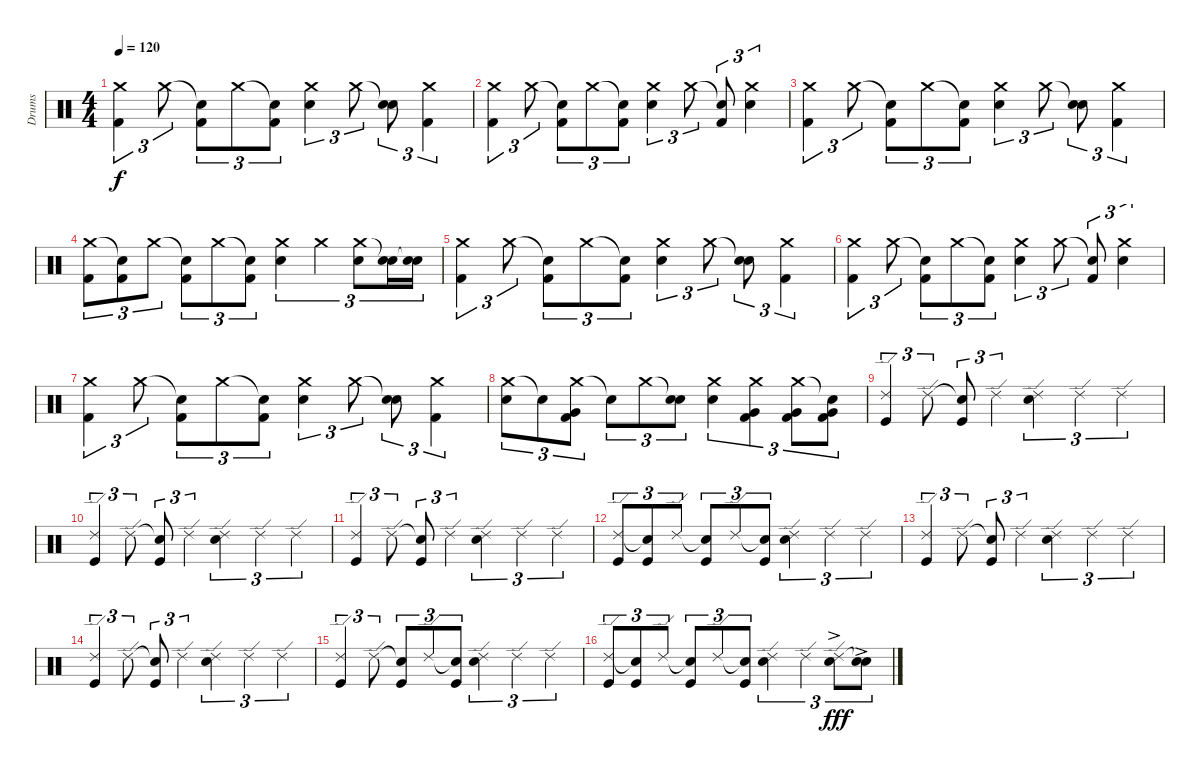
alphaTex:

\track ("Drums" "Drums") {instrument percussion}
\staff {score}
\articulation defaults
\ts (4 4)
\tempo 120
\clef neutral
\ks c
("Crash medium (hit)" "Kick (hit) 2").4{tu (3 2) dy f} "Crash medium (hit)".8{tu (3 2)} ("Snare (hit)"{t} "Kick (hit) 2").8{tu (3 2)} "Crash medium (hit)".8{tu (3 2)} ("Snare (hit)"{t} "Kick (hit) 2").8{tu (3 2)} ("Crash medium (hit)" "Electric Snare (hit)").4{tu (3 2)} "Crash medium (hit)".8{tu (3 2)} ("Snare (hit)"{t} "Electric Snare (hit)").8{tu (3 2)} ("Crash medium (hit)" "Kick (hit) 2").4{tu (3 2)} |
("Crash medium (hit)" "Kick (hit) 2").4{tu (3 2)} "Crash medium (hit)".8{tu (3 2)} ("Snare (hit)"{t} "Kick (hit) 2").8{tu (3 2)} "Crash medium (hit)".8{tu (3 2)} ("Snare (hit)"{t} "Kick (hit) 2").8{tu (3 2)} ("Crash medium (hit)" "Electric Snare (hit)").4{tu (3 2)} "Crash medium (hit)".8{tu (3 2)} ("Snare (hit)"{t} "Kick (hit) 2").8{tu (3 2)} ("Crash medium (hit)" "Electric Snare (hit)").4{tu (3 2)} |
("Crash medium (hit)" "Kick (hit) 2").4{tu (3 2)} "Crash medium (hit)".8{tu (3 2)} ("Snare (hit)"{t} "Kick (hit) 2").8{tu (3 2)} "Crash medium (hit)".8{tu (3 2)} ("Snare (hit)"{t} "Kick (hit) 2").8{tu (3 2)} ("Crash medium (hit)" "Electric Snare (hit)").4{tu (3 2)} "Crash medium (hit)".8{tu (3 2)} ("Snare (hit)"{t} "Electric Snare (hit)").8{tu (3 2)} ("Crash medium (hit)" "Kick (hit) 2").4{tu (3 2)} |
("Crash medium (hit)" "Kick (hit) 2").8{tu (3 2)} ("Snare (hit)"{t} "Kick (hit) 2").8{tu (3 2)} "Crash medium (hit)".8{tu (3 2)} ("Snare (hit)"{t} "Kick (hit) 2").8{tu (3 2)} "Crash medium (hit)".8{tu (3 2)} ("Snare (hit)"{t} "Kick (hit) 2").8{tu (3 2)} ("Crash medium (hit)" "Electric Snare (hit)").4{tu (3 2)} "Crash medium (hit)".4{tu (3 2)} ("Crash medium (hit)" "Electric Snare (hit)").8{tu (3 2)} ("Snare (hit)"{t} "Electric Snare (hit)").16{tu (3 2)} ("Snare (hit)"{t} "Electric Snare (hit)").16{tu (3 2)} |
("Crash medium (hit)" "Kick (hit) 2").4{tu (3 2)} "Crash medium (hit)".8{tu (3 2)} ("Snare (hit)"{t} "Kick (hit) 2").8{tu (3 2)} "Crash medium (hit)".8{tu (3 2)} ("Snare (hit)"{t} "Kick (hit) 2").8{tu (3 2)} ("Crash medium (hit)" "Electric Snare (hit)").4{tu (3 2)} "Crash medium (hit)".8{tu (3 2)} ("Snare (hit)"{t} "Electric Snare (hit)").8{tu (3 2)} ("Crash medium (hit)" "Kick (hit) 2").4{tu (3 2)} |
("Crash medium (hit)" "Kick (hit) 2").4{tu (3 2)} "Crash medium (hit)".8{tu (3 2)} ("Snare (hit)"{t} "Kick (hit) 2").8{tu (3 2)} "Crash medium (hit)".8{tu (3 2)} ("Snare (hit)"{t} "Kick (hit) 2").8{tu (3 2)} ("Crash medium (hit)" "Electric Snare (hit)").4{tu (3 2)} "Crash medium (hit)".8{tu (3 2)} ("Snare (hit)"{t} "Kick (hit) 2").8{tu (3 2)} ("Crash medium (hit)" "Electric Snare (hit)").4{tu (3 2)} |
("Crash medium (hit)" "Kick (hit) 2").4{tu (3 2)} "Crash medium (hit)".8{tu (3 2)} ("Snare (hit)"{t} "Kick (hit) 2").8{tu (3 2)} "Crash medium (hit)".8{tu (3 2)} ("Snare (hit)"{t} "Kick (hit) 2").8{tu (3 2)} ("Crash medium (hit)" "Electric Snare (hit)").4{tu (3 2)} "Crash medium (hit)".8{tu (3 2)} ("Snare (hit)"{t} "Electric Snare (hit)").8{tu (3 2)} ("Crash medium (hit)" "Kick (hit) 2").4{tu (3 2)} |
("Crash medium (hit)" "Electric Snare (hit)").8{tu (3 2)} "Snare (hit)"{t}.8{tu (3 2)} ("Crash medium (hit)" "Very Low Tom (hit)" "Kick (hit) 2").8{tu (3 2)} "Snare (hit)"{t}.8{tu (3 2)} "Crash medium (hit)".8{tu (3 2)} ("Snare (hit)"{t} "Electric Snare (hit)").8{tu (3 2)} ("Crash medium (hit)" "Electric Snare (hit)").4{tu (3 2)} ("Crash medium (hit)" "Very Low Tom (hit)" "Kick (hit) 2").4{tu (3 2)} ("Crash medium (hit)" "Very Low Tom (hit)" "Kick (hit) 2").8{tu (3 2)} ("Snare (hit)"{t} "Very Low Tom (hit)" "Kick (hit) 2").8{tu (3 2)} |
("Ride (edge) 2" "Kick (hit)").4{tu (3 2) volume 11} "Ride (edge) 2".8{tu (3 2)} ("Snare (hit)"{t} "Kick (hit)").8{tu (3 2)} "Ride (edge) 2".4{tu (3 2)} ("Ride (edge) 2" "Electric Snare (hit)").4{tu (3 2)} "Ride (edge) 2".4{tu (3 2)} "Ride (edge) 2".4{tu (3 2)} |
("Ride (edge) 2" "Kick (hit)").4{tu (3 2)} "Ride (edge) 2".8{tu (3 2)} ("Snare (hit)"{t} "Kick (hit)").8{tu (3 2)} "Ride (edge) 2".4{tu (3 2)} ("Ride (edge) 2" "Electric Snare (hit)").4{tu (3 2)} "Ride (edge) 2".4{tu (3 2)} "Ride (edge) 2".4{tu (3 2)} |
("Ride (edge) 2" "Kick (hit)").4{tu (3 2)} "Ride (edge) 2".8{tu (3 2)} ("Snare (hit)"{t} "Kick (hit)").8{tu (3 2)} "Ride (edge) 2".4{tu (3 2)} ("Ride (edge) 2" "Electric Snare (hit)").4{tu (3 2)} "Ride (edge) 2".4{tu (3 2)} "Ride (edge) 2".4{tu (3 2)} |
("Ride (edge) 2" "Kick (hit)").8{tu (3 2)} ("Snare (hit)"{t} "Kick (hit)").8{tu (3 2)} "Ride (edge) 2".8{tu (3 2)} ("Snare (hit)"{t} "Kick (hit)").8{tu (3 2)} "Ride (edge) 2".8{tu (3 2)} ("Snare (hit)"{t} "Kick (hit)").8{tu (3 2)} ("Ride (edge) 2" "Electric Snare (hit)").4{tu (3 2)} "Ride (edge) 2".4{tu (3 2)} "Ride (edge) 2".4{tu (3 2)} |
("Ride (edge) 2" "Kick (hit)").4{tu (3 2) volume 11} "Ride (edge) 2".8{tu (3 2)} ("Snare (hit)"{t} "Kick (hit)").8{tu (3 2)} "Ride (edge) 2".4{tu (3 2)} ("Ride (edge) 2" "Electric Snare (hit)").4{tu (3 2)} "Ride (edge) 2".4{tu (3 2)} "Ride (edge) 2".4{tu (3 2)} |
("Ride (edge) 2" "Kick (hit)").4{tu (3 2)} "Ride (edge) 2".8{tu (3 2)} ("Snare (hit)"{t} "Kick (hit)").8{tu (3 2)} "Ride (edge) 2".4{tu (3 2)} ("Ride (edge) 2" "Electric Snare (hit)").4{tu (3 2)} "Ride (edge) 2".4{tu (3 2)} "Ride (edge) 2".4{tu (3 2)} |
("Ride (edge) 2" "Kick (hit)").4{tu (3 2)} "Ride (edge) 2".8{tu (3 2)} ("Snare (hit)"{t} "Kick (hit)").8{tu (3 2)} "Ride (edge) 2".8{tu (3 2)} ("Snare (hit)"{t} "Kick (hit)").8{tu (3 2)} ("Ride (edge) 2" "Electric Snare (hit)").4{tu (3 2)} "Ride (edge) 2".4{tu (3 2)} "Ride (edge) 2".4{tu (3 2)} |
("Ride (edge) 2" "Kick (hit)").8{tu (3 2)} ("Snare (hit)"{t} "Kick (hit)").8{tu (3 2)} "Ride (edge) 2".8{tu (3 2)} ("Snare (hit)"{t} "Kick (hit)").8{tu (3 2)} "Ride (edge) 2".8{tu (3 2)} ("Snare (hit)"{t} "Kick (hit)").8{tu (3 2)} ("Ride (edge) 2" "Electric Snare (hit)").4{tu (3 2)} "Ride (edge) 2".4{tu (3 2)} ("Ride (edge) 2" "Electric Snare (hit)"{ac}).8{tu (3 2) dy fff} ("Snare (hit)"{t} "Electric Snare (hit)"{ac}).8{tu (3 2)}
